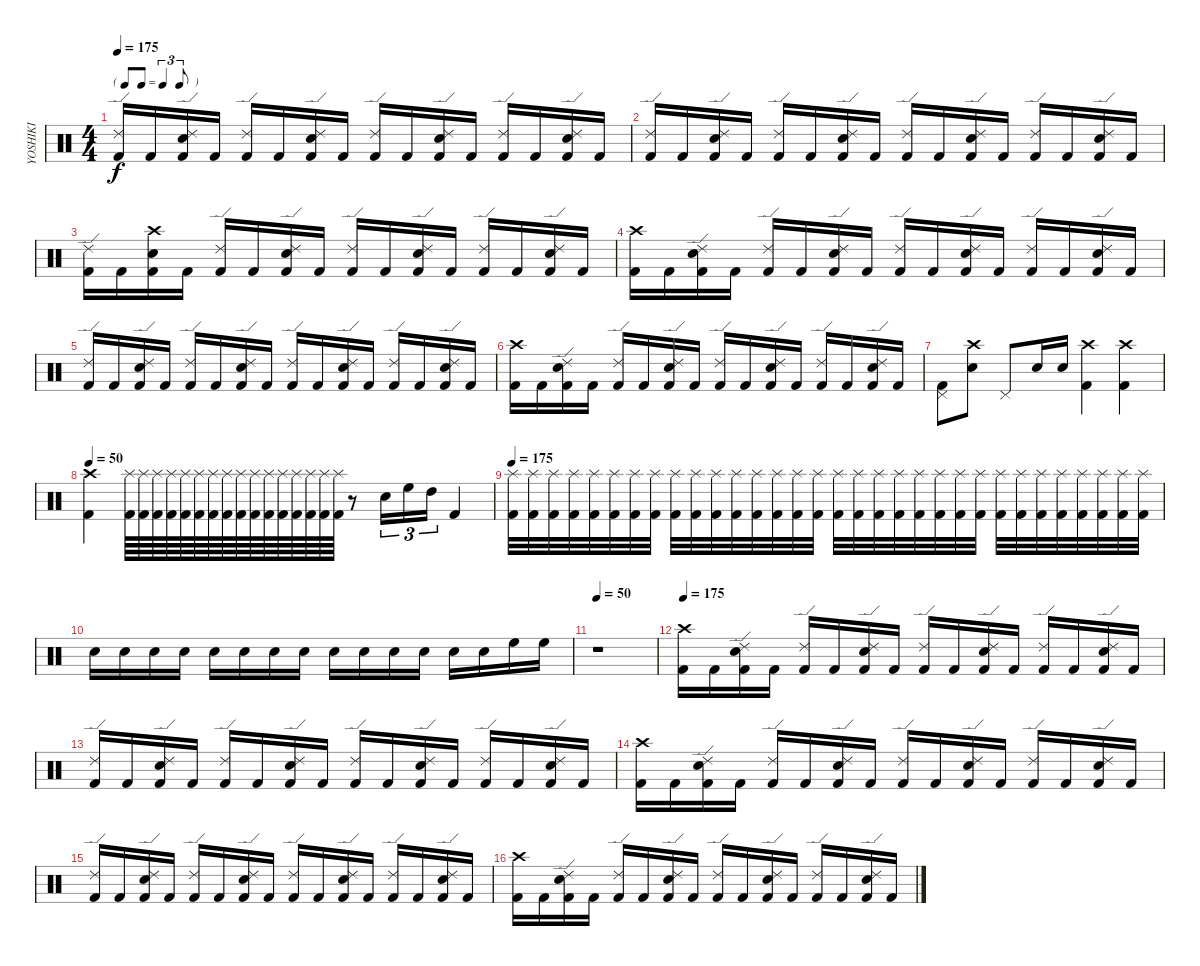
\track ("YOSHIKI" "YOSHIKI") {instrument percussion}
\staff {score}
\articulation defaults
\ts (4 4)
\tf triplet8th
\tempo 175
\clef neutral
\ks c
("Ride (edge) 2" "Kick (hit) 2").16{dy f} "Kick (hit) 2".16 ("Ride (edge) 2" "Snare (hit) 2" "Kick (hit) 2").16 "Kick (hit) 2".16 ("Ride (edge) 2" "Kick (hit) 2").16 "Kick (hit) 2".16 ("Ride (edge) 2" "Snare (hit) 2" "Kick (hit) 2").16 "Kick (hit) 2".16 ("Ride (edge) 2" "Kick (hit) 2").16 "Kick (hit) 2".16 ("Ride (edge) 2" "Snare (hit) 2" "Kick (hit) 2").16 "Kick (hit) 2".16 ("Ride (edge) 2" "Kick (hit) 2").16 "Kick (hit) 2".16 ("Ride (edge) 2" "Snare (hit) 2" "Kick (hit) 2").16 "Kick (hit) 2".16 |
("Ride (edge) 2" "Kick (hit) 2").16 "Kick (hit) 2".16 ("Ride (edge) 2" "Snare (hit) 2" "Kick (hit) 2").16 "Kick (hit) 2".16 ("Ride (edge) 2" "Kick (hit) 2").16 "Kick (hit) 2".16 ("Ride (edge) 2" "Snare (hit) 2" "Kick (hit) 2").16 "Kick (hit) 2".16 ("Ride (edge) 2" "Kick (hit) 2").16 "Kick (hit) 2".16 ("Ride (edge) 2" "Snare (hit) 2" "Kick (hit) 2").16 "Kick (hit) 2".16 ("Ride (edge) 2" "Kick (hit) 2").16 "Kick (hit) 2".16 ("Ride (edge) 2" "Snare (hit) 2" "Kick (hit) 2").16 "Kick (hit) 2".16 |
("Ride (edge) 2" "Kick (hit) 2").16 "Kick (hit) 2".16 ("Crash high (hit)" "Snare (hit) 2" "Kick (hit) 2").16 "Kick (hit) 2".16 ("Ride (edge) 2" "Kick (hit) 2").16 "Kick (hit) 2".16 ("Ride (edge) 2" "Snare (hit) 2" "Kick (hit) 2").16 "Kick (hit) 2".16 ("Ride (edge) 2" "Kick (hit) 2").16 "Kick (hit) 2".16 ("Ride (edge) 2" "Snare (hit) 2" "Kick (hit) 2").16 "Kick (hit) 2".16 ("Ride (edge) 2" "Kick (hit) 2").16 "Kick (hit) 2".16 ("Ride (edge) 2" "Snare (hit) 2" "Kick (hit) 2").16 "Kick (hit) 2".16 |
("Crash high (hit)" "Kick (hit) 2").16 "Kick (hit) 2".16 ("Ride (edge) 2" "Snare (hit) 2" "Kick (hit) 2").16 "Kick (hit) 2".16 ("Ride (edge) 2" "Kick (hit) 2").16 "Kick (hit) 2".16 ("Ride (edge) 2" "Snare (hit) 2" "Kick (hit) 2").16 "Kick (hit) 2".16 ("Ride (edge) 2" "Kick (hit) 2").16 "Kick (hit) 2".16 ("Ride (edge) 2" "Snare (hit) 2" "Kick (hit) 2").16 "Kick (hit) 2".16 ("Ride (edge) 2" "Kick (hit) 2").16 "Kick (hit) 2".16 ("Ride (edge) 2" "Snare (hit) 2" "Kick (hit) 2").16 "Kick (hit) 2".16 |
("Ride (edge) 2" "Kick (hit) 2").16 "Kick (hit) 2".16 ("Ride (edge) 2" "Snare (hit) 2" "Kick (hit) 2").16 "Kick (hit) 2".16 ("Ride (edge) 2" "Kick (hit) 2").16 "Kick (hit) 2".16 ("Ride (edge) 2" "Snare (hit) 2" "Kick (hit) 2").16 "Kick (hit) 2".16 ("Ride (edge) 2" "Kick (hit) 2").16 "Kick (hit) 2".16 ("Ride (edge) 2" "Snare (hit) 2" "Kick (hit) 2").16 "Kick (hit) 2".16 ("Ride (edge) 2" "Kick (hit) 2").16 "Kick (hit) 2".16 ("Ride (edge) 2" "Snare (hit) 2" "Kick (hit) 2").16 "Kick (hit) 2".16 |
("Crash high (hit)" "Kick (hit) 2").16 "Kick (hit) 2".16 ("Ride (edge) 2" "Snare (hit) 2" "Kick (hit) 2").16 "Kick (hit) 2".16 ("Ride (edge) 2" "Kick (hit) 2").16 "Kick (hit) 2".16 ("Ride (edge) 2" "Snare (hit) 2" "Kick (hit) 2").16 "Kick (hit) 2".16 ("Ride (edge) 2" "Kick (hit) 2").16 "Kick (hit) 2".16 ("Ride (edge) 2" "Snare (hit) 2" "Kick (hit) 2").16 "Kick (hit) 2".16 ("Ride (edge) 2" "Kick (hit) 2").16 "Kick (hit) 2".16 ("Ride (edge) 2" "Snare (hit) 2" "Kick (hit) 2").16 "Kick (hit) 2".16 |
("Pedal Hi-Hat (hit)" "Kick (hit) 2").8 ("Crash high (hit)" "Snare (hit) 2").8 "Pedal Hi-Hat (hit)".8 "Snare (hit) 2".16 "Snare (hit) 2".16 ("Crash high (hit)" "Kick (hit) 2").4 ("Crash high (hit)" "Kick (hit) 2").4 |
\tempo 50
("Crash high (hit)" "Kick (hit) 2").4 ("Splash (hit)" "Kick (hit) 2").64 ("Splash (hit)" "Kick (hit) 2").64 ("Splash (hit)" "Kick (hit) 2").64 ("Splash (hit)" "Kick (hit) 2").64 ("Splash (hit)" "Kick (hit) 2").64 ("Splash (hit)" "Kick (hit) 2").64 ("Splash (hit)" "Kick (hit) 2").64 ("Splash (hit)" "Kick (hit) 2").64 ("Splash (hit)" "Kick (hit) 2").64 ("Splash (hit)" "Kick (hit) 2").64 ("Splash (hit)" "Kick (hit) 2").64 ("Splash (hit)" "Kick (hit) 2").64 ("Splash (hit)" "Kick (hit) 2").64 ("Splash (hit)" "Kick (hit) 2").64 ("Splash (hit)" "Kick (hit) 2").64 ("Splash (hit)" "Kick (hit) 2").64 r.8 "Snare (hit) 2".16{tu (3 2)} "High Floor Tom (hit)".16{tu (3 2)} "High Tom (hit)".16{tu (3 2)} "Kick (hit) 2".4 |
\tempo 175
("Splash (hit)" "Kick (hit) 2").32 ("Splash (hit)" "Kick (hit) 2").32 ("Splash (hit)" "Kick (hit) 2").32 ("Splash (hit)" "Kick (hit) 2").32 ("Splash (hit)" "Kick (hit) 2").32 ("Splash (hit)" "Kick (hit) 2").32 ("Splash (hit)" "Kick (hit) 2").32 ("Splash (hit)" "Kick (hit) 2").32 ("Splash (hit)" "Kick (hit) 2").32 ("Splash (hit)" "Kick (hit) 2").32 ("Splash (hit)" "Kick (hit) 2").32 ("Splash (hit)" "Kick (hit) 2").32 ("Splash (hit)" "Kick (hit) 2").32 ("Splash (hit)" "Kick (hit) 2").32 ("Splash (hit)" "Kick (hit) 2").32 ("Splash (hit)" "Kick (hit) 2").32 ("Splash (hit)" "Kick (hit) 2").32 ("Splash (hit)" "Kick (hit) 2").32 ("Splash (hit)" "Kick (hit) 2").32 ("Splash (hit)" "Kick (hit) 2").32 ("Splash (hit)" "Kick (hit) 2").32 ("Splash (hit)" "Kick (hit) 2").32 ("Splash (hit)" "Kick (hit) 2").32 ("Splash (hit)" "Kick (hit) 2").32 ("Splash (hit)" "Kick (hit) 2").32 ("Splash (hit)" "Kick (hit) 2").32 ("Splash (hit)" "Kick (hit) 2").32 ("Splash (hit)" "Kick (hit) 2").32 ("Splash (hit)" "Kick (hit) 2").32 ("Splash (hit)" "Kick (hit) 2").32 ("Splash (hit)" "Kick (hit) 2").32 ("Splash (hit)" "Kick (hit) 2").32 |
"Snare (hit) 2".16 "Snare (hit) 2".16 "Snare (hit) 2".16 "Snare (hit) 2".16 "Snare (hit) 2".16 "Snare (hit) 2".16 "Snare (hit) 2".16 "Snare (hit) 2".16 "Snare (hit) 2".16 "Snare (hit) 2".16 "Snare (hit) 2".16 "Snare (hit) 2".16 "Snare (hit) 2".16 "Snare (hit) 2".16 "High Floor Tom (hit)".16 "High Floor Tom (hit)".16 |
\tempo 50
r.1 |
\tempo 175
("Crash high (hit)" "Kick (hit) 2").16 "Kick (hit) 2".16 ("Ride (edge) 2" "Snare (hit) 2" "Kick (hit) 2").16 "Kick (hit) 2".16 ("Ride (edge) 2" "Kick (hit) 2").16 "Kick (hit) 2".16 ("Ride (edge) 2" "Snare (hit) 2" "Kick (hit) 2").16 "Kick (hit) 2".16 ("Ride (edge) 2" "Kick (hit) 2").16 "Kick (hit) 2".16 ("Ride (edge) 2" "Snare (hit) 2" "Kick (hit) 2").16 "Kick (hit) 2".16 ("Ride (edge) 2" "Kick (hit) 2").16 "Kick (hit) 2".16 ("Ride (edge) 2" "Snare (hit) 2" "Kick (hit) 2").16 "Kick (hit) 2".16 |
("Ride (edge) 2" "Kick (hit) 2").16 "Kick (hit) 2".16 ("Ride (edge) 2" "Snare (hit) 2" "Kick (hit) 2").16 "Kick (hit) 2".16 ("Ride (edge) 2" "Kick (hit) 2").16 "Kick (hit) 2".16 ("Ride (edge) 2" "Snare (hit) 2" "Kick (hit) 2").16 "Kick (hit) 2".16 ("Ride (edge) 2" "Kick (hit) 2").16 "Kick (hit) 2".16 ("Ride (edge) 2" "Snare (hit) 2" "Kick (hit) 2").16 "Kick (hit) 2".16 ("Ride (edge) 2" "Kick (hit) 2").16 "Kick (hit) 2".16 ("Ride (edge) 2" "Snare (hit) 2" "Kick (hit) 2").16 "Kick (hit) 2".16 |
("Crash high (hit)" "Kick (hit) 2").16 "Kick (hit) 2".16 ("Ride (edge) 2" "Snare (hit) 2" "Kick (hit) 2").16 "Kick (hit) 2".16 ("Ride (edge) 2" "Kick (hit) 2").16 "Kick (hit) 2".16 ("Ride (edge) 2" "Snare (hit) 2" "Kick (hit) 2").16 "Kick (hit) 2".16 ("Ride (edge) 2" "Kick (hit) 2").16 "Kick (hit) 2".16 ("Ride (edge) 2" "Snare (hit) 2" "Kick (hit) 2").16 "Kick (hit) 2".16 ("Ride (edge) 2" "Kick (hit) 2").16 "Kick (hit) 2".16 ("Ride (edge) 2" "Snare (hit) 2" "Kick (hit) 2").16 "Kick (hit) 2".16 |
("Ride (edge) 2" "Kick (hit) 2").16 "Kick (hit) 2".16 ("Ride (edge) 2" "Snare (hit) 2" "Kick (hit) 2").16 "Kick (hit) 2".16 ("Ride (edge) 2" "Kick (hit) 2").16 "Kick (hit) 2".16 ("Ride (edge) 2" "Snare (hit) 2" "Kick (hit) 2").16 "Kick (hit) 2".16 ("Ride (edge) 2" "Kick (hit) 2").16 "Kick (hit) 2".16 ("Ride (edge) 2" "Snare (hit) 2" "Kick (hit) 2").16 "Kick (hit) 2".16 ("Ride (edge) 2" "Kick (hit) 2").16 "Kick (hit) 2".16 ("Ride (edge) 2" "Snare (hit) 2" "Kick (hit) 2").16 "Kick (hit) 2".16 |
("Crash high (hit)" "Kick (hit) 2").16 "Kick (hit) 2".16 ("Ride (edge) 2" "Snare (hit) 2" "Kick (hit) 2").16 "Kick (hit) 2".16 ("Ride (edge) 2" "Kick (hit) 2").16 "Kick (hit) 2".16 ("Ride (edge) 2" "Snare (hit) 2" "Kick (hit) 2").16 "Kick (hit) 2".16 ("Ride (edge) 2" "Kick (hit) 2").16 "Kick (hit) 2".16 ("Ride (edge) 2" "Snare (hit) 2" "Kick (hit) 2").16 "Kick (hit) 2".16 ("Ride (edge) 2" "Kick (hit) 2").16 "Kick (hit) 2".16 ("Ride (edge) 2" "Snare (hit) 2" "Kick (hit) 2").16 "Kick (hit) 2".16
